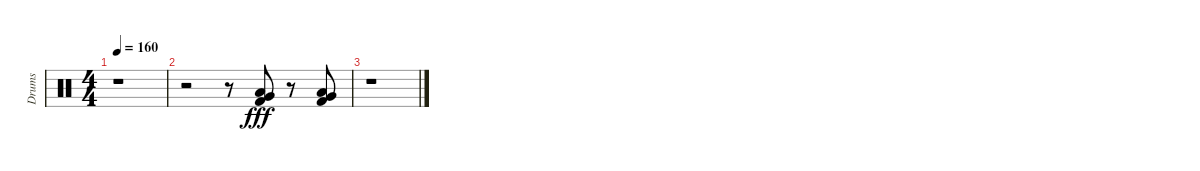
\track ("Drums" "Drums") {instrument percussion}
\staff {score}
\articulation defaults
\ts (4 4)
\tempo 160
\clef neutral
\ks c
r.1{dy f} |
r.2 r.8 ("Very Low Tom (hit)" "Low Floor Tom (hit)" "Kick (hit) 2").8{dy fff} r.8 ("Very Low Tom (hit)" "Low Floor Tom (hit)" "Kick (hit) 2").8 |
r.1
